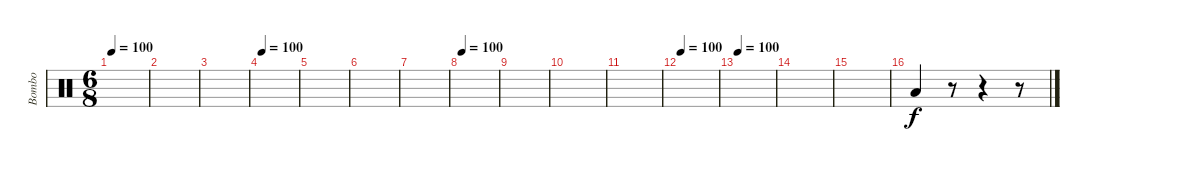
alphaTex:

\track ("Bombo" "Bombo") {instrument percussion}
\staff {score}
\articulation defaults
\ts (6 8)
\tempo 100
\clef neutral
\ks c
|
|
|
\tempo 100
|
|
|
|
\tempo 100
|
|
|
|
\tempo 100
|
\tempo 100
|
|
|
"Low Floor Tom (hit)".4 r.8 r.4 r.8
